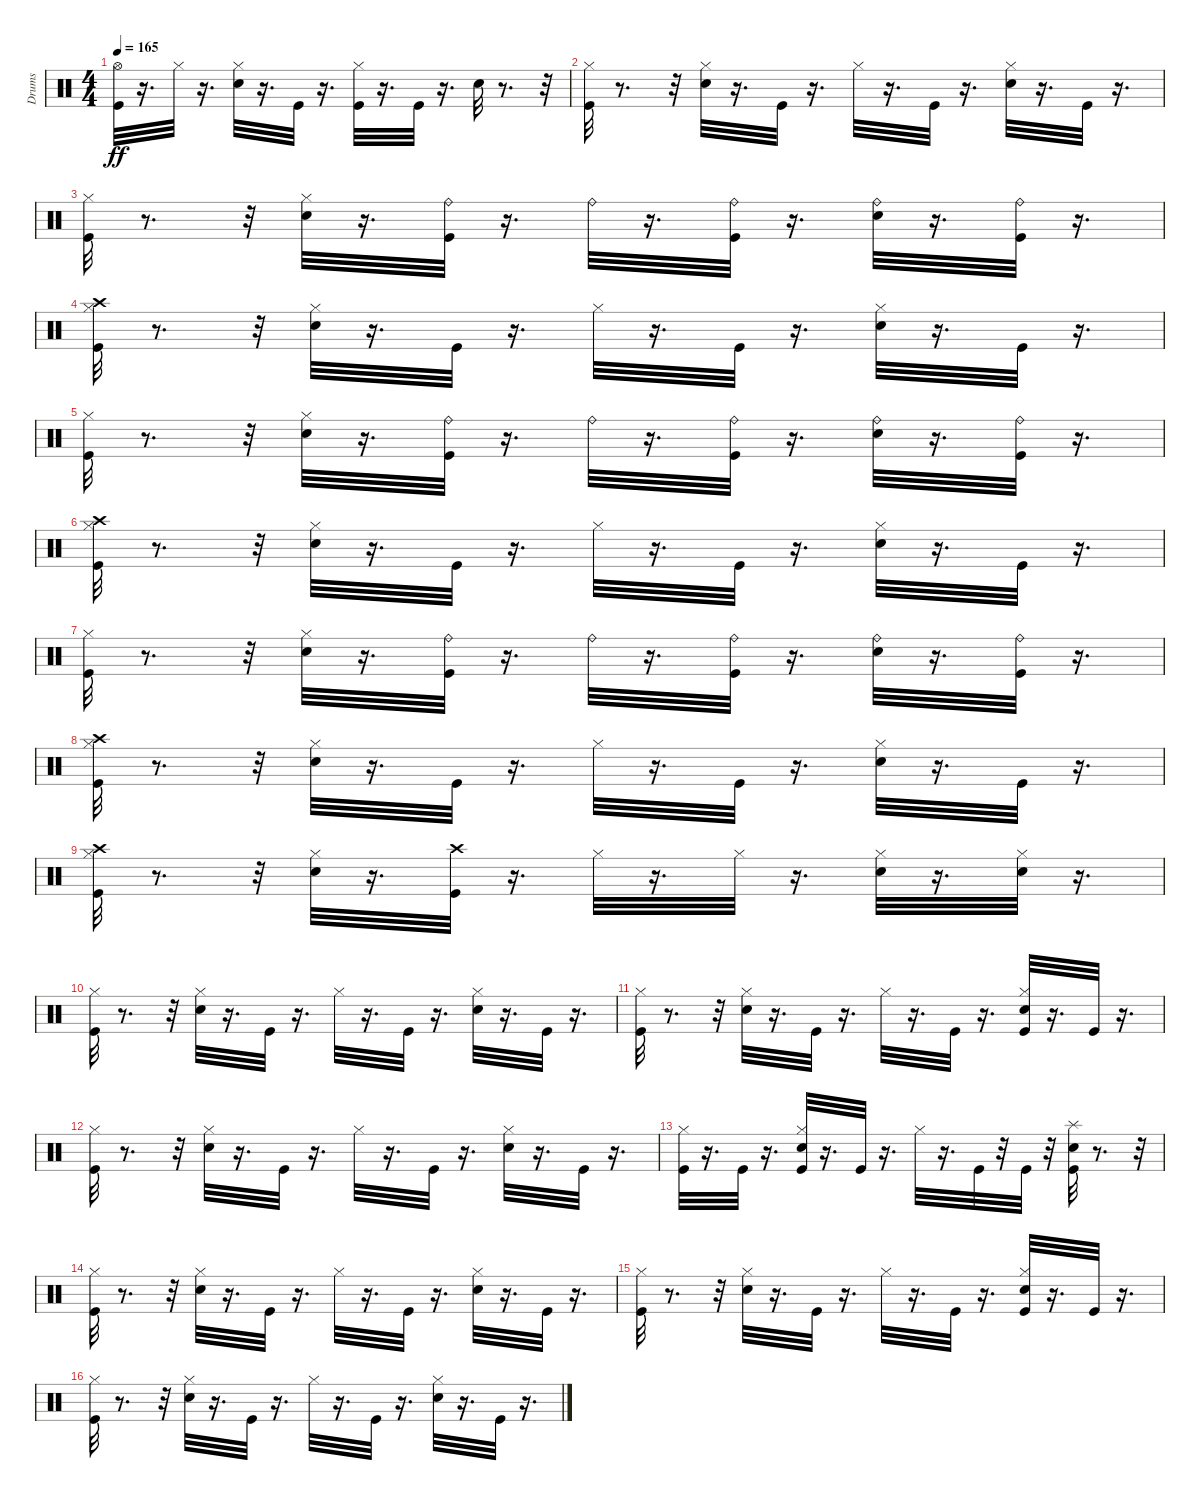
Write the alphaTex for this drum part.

\track ("Drums" "Drums") {instrument percussion}
\staff {score}
\articulation defaults
\ts (4 4)
\tempo 165
\clef neutral
\ks c
("Hi-Hat (open)" "Kick (hit)").32{dy ff} r.16{d} "Hi-Hat (closed)".32 r.16{d} ("Hi-Hat (closed)" "Electric Snare (hit)").32 r.16{d} "Kick (hit)".32 r.16{d} ("Hi-Hat (closed)" "Kick (hit)").32 r.16{d} "Kick (hit)".32 r.16{d} "Electric Snare (hit)".32 r.8{d} r.32 |
("Hi-Hat (closed)" "Kick (hit)").32 r.8{d} r.32 ("Hi-Hat (closed)" "Electric Snare (hit)").32 r.16{d} "Kick (hit)".32 r.16{d} "Hi-Hat (closed)".32 r.16{d} "Kick (hit)".32 r.16{d} ("Hi-Hat (closed)" "Electric Snare (hit)").32 r.16{d} "Kick (hit)".32 r.16{d} |
("Hi-Hat (closed)" "Kick (hit)").32 r.8{d} r.32 ("Electric Snare (hit)" "Hi-Hat (closed)").32 r.16{d} ("Ride (bell)" "Kick (hit)").32 r.16{d} "Ride (bell)".32 r.16{d} ("Ride (bell)" "Kick (hit)").32 r.16{d} ("Ride (bell)" "Electric Snare (hit)").32 r.16{d} ("Ride (bell)" "Kick (hit)").32 r.16{d} |
("Hi-Hat (closed)" "Crash high (hit)" "Kick (hit)").32 r.8{d} r.32 ("Hi-Hat (closed)" "Electric Snare (hit)").32 r.16{d} "Kick (hit)".32 r.16{d} "Hi-Hat (closed)".32 r.16{d} "Kick (hit)".32 r.16{d} ("Electric Snare (hit)" "Hi-Hat (closed)").32 r.16{d} "Kick (hit)".32 r.16{d} |
("Kick (hit)" "Hi-Hat (closed)").32 r.8{d} r.32 ("Hi-Hat (closed)" "Electric Snare (hit)").32 r.16{d} ("Kick (hit)" "Ride (bell)").32 r.16{d} "Ride (bell)".32 r.16{d} ("Ride (bell)" "Kick (hit)").32 r.16{d} ("Electric Snare (hit)" "Ride (bell)").32 r.16{d} ("Ride (bell)" "Kick (hit)").32 r.16{d} |
("Hi-Hat (closed)" "Crash high (hit)" "Kick (hit)").32 r.8{d} r.32 ("Electric Snare (hit)" "Hi-Hat (closed)").32 r.16{d} "Kick (hit)".32 r.16{d} "Hi-Hat (closed)".32 r.16{d} "Kick (hit)".32 r.16{d} ("Hi-Hat (closed)" "Electric Snare (hit)").32 r.16{d} "Kick (hit)".32 r.16{d} |
("Hi-Hat (closed)" "Kick (hit)").32 r.8{d} r.32 ("Electric Snare (hit)" "Hi-Hat (closed)").32 r.16{d} ("Kick (hit)" "Ride (bell)").32 r.16{d} "Ride (bell)".32 r.16{d} ("Ride (bell)" "Kick (hit)").32 r.16{d} ("Electric Snare (hit)" "Ride (bell)").32 r.16{d} ("Kick (hit)" "Ride (bell)").32 r.16{d} |
("Hi-Hat (closed)" "Crash high (hit)" "Kick (hit)").32 r.8{d} r.32 ("Electric Snare (hit)" "Hi-Hat (closed)").32 r.16{d} "Kick (hit)".32 r.16{d} "Hi-Hat (closed)".32 r.16{d} "Kick (hit)".32 r.16{d} ("Hi-Hat (closed)" "Electric Snare (hit)").32 r.16{d} "Kick (hit)".32 r.16{d} |
("Hi-Hat (closed)" "Crash high (hit)" "Kick (hit)").32 r.8{d} r.32 ("Electric Snare (hit)" "Hi-Hat (closed)").32 r.16{d} ("Kick (hit)" "Crash high (hit)").32 r.16{d} "Hi-Hat (closed)".32 r.16{d} "Hi-Hat (closed)".32 r.16{d} ("Hi-Hat (closed)" "Electric Snare (hit)").32 r.16{d} ("Hi-Hat (closed)" "Electric Snare (hit)").32 r.16{d} |
("Hi-Hat (closed)" "Kick (hit)").32 r.8{d} r.32 ("Electric Snare (hit)" "Hi-Hat (closed)").32 r.16{d} "Kick (hit)".32 r.16{d} "Hi-Hat (closed)".32 r.16{d} "Kick (hit)".32 r.16{d} ("Electric Snare (hit)" "Hi-Hat (closed)").32 r.16{d} "Kick (hit)".32 r.16{d} |
("Hi-Hat (closed)" "Kick (hit)").32 r.8{d} r.32 ("Electric Snare (hit)" "Hi-Hat (closed)").32 r.16{d} "Kick (hit)".32 r.16{d} "Hi-Hat (closed)".32 r.16{d} "Kick (hit)".32 r.16{d} ("Electric Snare (hit)" "Kick (hit)" "Hi-Hat (closed)").32 r.16{d} "Kick (hit)".32 r.16{d} |
("Hi-Hat (closed)" "Kick (hit)").32 r.8{d} r.32 ("Electric Snare (hit)" "Hi-Hat (closed)").32 r.16{d} "Kick (hit)".32 r.16{d} "Hi-Hat (closed)".32 r.16{d} "Kick (hit)".32 r.16{d} ("Electric Snare (hit)" "Hi-Hat (closed)").32 r.16{d} "Kick (hit)".32 r.16{d} |
("Hi-Hat (closed)" "Kick (hit)").32 r.16{d} "Kick (hit)".32 r.16{d} ("Kick (hit)" "Hi-Hat (closed)" "Electric Snare (hit)").32 r.16{d} "Kick (hit)".32 r.16{d} "Hi-Hat (closed)".32 r.16{d} "Kick (hit)".32 r.32 "Kick (hit)".32 r.32 ("Kick (hit)" "Splash (hit)" "Electric Snare (hit)").32 r.8{d} r.32 |
("Hi-Hat (closed)" "Kick (hit)").32 r.8{d} r.32 ("Electric Snare (hit)" "Hi-Hat (closed)").32 r.16{d} "Kick (hit)".32 r.16{d} "Hi-Hat (closed)".32 r.16{d} "Kick (hit)".32 r.16{d} ("Electric Snare (hit)" "Hi-Hat (closed)").32 r.16{d} "Kick (hit)".32 r.16{d} |
("Hi-Hat (closed)" "Kick (hit)").32 r.8{d} r.32 ("Electric Snare (hit)" "Hi-Hat (closed)").32 r.16{d} "Kick (hit)".32 r.16{d} "Hi-Hat (closed)".32 r.16{d} "Kick (hit)".32 r.16{d} ("Electric Snare (hit)" "Kick (hit)" "Hi-Hat (closed)").32 r.16{d} "Kick (hit)".32 r.16{d} |
("Hi-Hat (closed)" "Kick (hit)").32 r.8{d} r.32 ("Electric Snare (hit)" "Hi-Hat (closed)").32 r.16{d} "Kick (hit)".32 r.16{d} "Hi-Hat (closed)".32 r.16{d} "Kick (hit)".32 r.16{d} ("Electric Snare (hit)" "Hi-Hat (closed)").32 r.16{d} "Kick (hit)".32 r.16{d}
